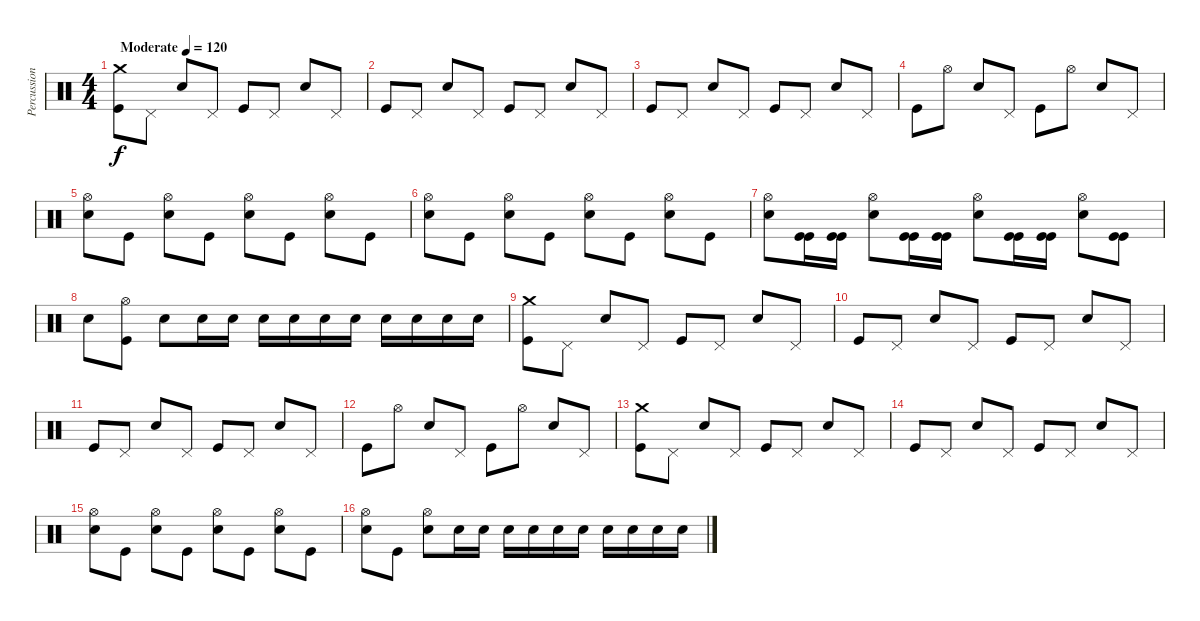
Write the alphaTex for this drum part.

\track ("Percussion" "Percussion") {instrument percussion}
\staff {score}
\articulation defaults
\ts (4 4)
\tempo (120 "Moderate")
\clef neutral
\ks c
("Crash medium (hit)" "Kick (hit)").8{dy f} "Pedal Hi-Hat (hit)".8 "Snare (hit) 2".8 "Pedal Hi-Hat (hit)".8 "Kick (hit)".8 "Pedal Hi-Hat (hit)".8 "Snare (hit) 2".8 "Pedal Hi-Hat (hit)".8 |
"Kick (hit)".8 "Pedal Hi-Hat (hit)".8 "Snare (hit) 2".8 "Pedal Hi-Hat (hit)".8 "Kick (hit)".8 "Pedal Hi-Hat (hit)".8 "Snare (hit) 2".8 "Pedal Hi-Hat (hit)".8 |
"Kick (hit)".8 "Pedal Hi-Hat (hit)".8 "Snare (hit) 2".8 "Pedal Hi-Hat (hit)".8 "Kick (hit)".8 "Pedal Hi-Hat (hit)".8 "Snare (hit) 2".8 "Pedal Hi-Hat (hit)".8 |
"Kick (hit)".8 "Hi-Hat (open)".8 "Snare (hit) 2".8 "Pedal Hi-Hat (hit)".8 "Kick (hit)".8 "Hi-Hat (open)".8 "Snare (hit) 2".8 "Pedal Hi-Hat (hit)".8 |
("Hi-Hat (open)" "Snare (hit) 2").8 "Kick (hit)".8 ("Hi-Hat (open)" "Snare (hit) 2").8 "Kick (hit)".8 ("Hi-Hat (open)" "Snare (hit) 2").8 "Kick (hit)".8 ("Hi-Hat (open)" "Snare (hit) 2").8 "Kick (hit)".8 |
("Hi-Hat (open)" "Snare (hit) 2").8 "Kick (hit)".8 ("Hi-Hat (open)" "Snare (hit) 2").8 "Kick (hit)".8 ("Hi-Hat (open)" "Snare (hit) 2").8 "Kick (hit)".8 ("Hi-Hat (open)" "Snare (hit) 2").8 "Kick (hit)".8 |
("Hi-Hat (open)" "Snare (hit) 2").8 ("Kick (hit)" "Kick (hit)").16 ("Kick (hit)" "Kick (hit)").16 ("Hi-Hat (open)" "Snare (hit) 2").8 ("Kick (hit)" "Kick (hit)").16 ("Kick (hit)" "Kick (hit)").16 ("Hi-Hat (open)" "Snare (hit) 2").8 ("Kick (hit)" "Kick (hit)").16 ("Kick (hit)" "Kick (hit)").16 ("Hi-Hat (open)" "Snare (hit) 2").8 ("Kick (hit)" "Kick (hit)").8 |
"Snare (hit) 2".8 ("Hi-Hat (open)" "Kick (hit)").8 "Snare (hit) 2".8 "Snare (hit) 2".16 "Snare (hit) 2".16 "Snare (hit) 2".16 "Snare (hit) 2".16 "Snare (hit) 2".16 "Snare (hit) 2".16 "Snare (hit) 2".16 "Snare (hit) 2".16 "Snare (hit) 2".16 "Snare (hit) 2".16 |
("Crash medium (hit)" "Kick (hit)").8 "Pedal Hi-Hat (hit)".8 "Snare (hit) 2".8 "Pedal Hi-Hat (hit)".8 "Kick (hit)".8 "Pedal Hi-Hat (hit)".8 "Snare (hit) 2".8 "Pedal Hi-Hat (hit)".8 |
"Kick (hit)".8 "Pedal Hi-Hat (hit)".8 "Snare (hit) 2".8 "Pedal Hi-Hat (hit)".8 "Kick (hit)".8 "Pedal Hi-Hat (hit)".8 "Snare (hit) 2".8 "Pedal Hi-Hat (hit)".8 |
"Kick (hit)".8 "Pedal Hi-Hat (hit)".8 "Snare (hit) 2".8 "Pedal Hi-Hat (hit)".8 "Kick (hit)".8 "Pedal Hi-Hat (hit)".8 "Snare (hit) 2".8 "Pedal Hi-Hat (hit)".8 |
"Kick (hit)".8 "Hi-Hat (open)".8 "Snare (hit) 2".8 "Pedal Hi-Hat (hit)".8 "Kick (hit)".8 "Hi-Hat (open)".8 "Snare (hit) 2".8 "Pedal Hi-Hat (hit)".8 |
("Crash medium (hit)" "Kick (hit)").8 "Pedal Hi-Hat (hit)".8 "Snare (hit) 2".8 "Pedal Hi-Hat (hit)".8 "Kick (hit)".8 "Pedal Hi-Hat (hit)".8 "Snare (hit) 2".8 "Pedal Hi-Hat (hit)".8 |
"Kick (hit)".8 "Pedal Hi-Hat (hit)".8 "Snare (hit) 2".8 "Pedal Hi-Hat (hit)".8 "Kick (hit)".8 "Pedal Hi-Hat (hit)".8 "Snare (hit) 2".8 "Pedal Hi-Hat (hit)".8 |
("Hi-Hat (open)" "Snare (hit) 2").8 "Kick (hit)".8 ("Hi-Hat (open)" "Snare (hit) 2").8 "Kick (hit)".8 ("Hi-Hat (open)" "Snare (hit) 2").8 "Kick (hit)".8 ("Hi-Hat (open)" "Snare (hit) 2").8 "Kick (hit)".8 |
("Hi-Hat (open)" "Snare (hit) 2").8 "Kick (hit)".8 ("Hi-Hat (open)" "Snare (hit) 2").8 "Snare (hit) 2".16 "Snare (hit) 2".16 "Snare (hit) 2".16 "Snare (hit) 2".16 "Snare (hit) 2".16 "Snare (hit) 2".16 "Snare (hit) 2".16 "Snare (hit) 2".16 "Snare (hit) 2".16 "Snare (hit) 2".16
